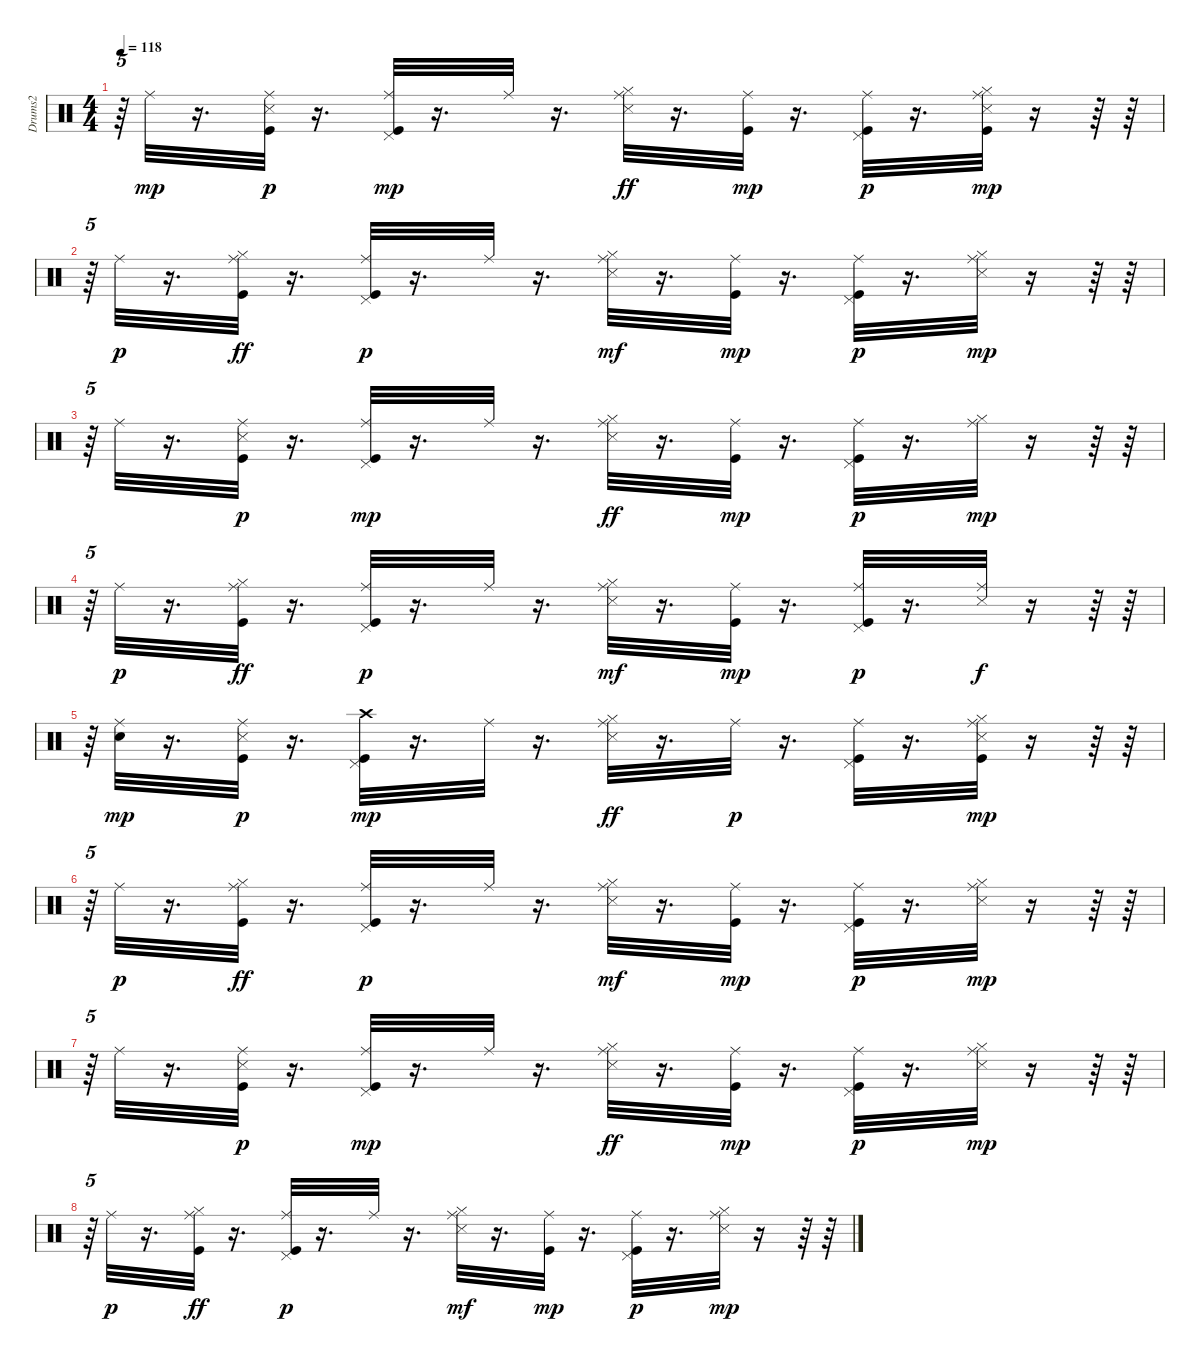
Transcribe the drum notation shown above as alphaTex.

\track ("Drums2" "Drums2") {instrument percussion}
\staff {score}
\articulation defaults
\ts (4 4)
\tempo 118
\clef neutral
\ks c
r.64{tu (5 4) dy mp} "Ride (middle)".32 r.16{d} ("Kick (hit)" "Snare (side stick) 3" "Ride (middle)").32{dy p} r.16{d} ("Kick (hit)" "Pedal Hi-Hat (hit)" "Ride (middle)").32{dy mp} r.16{d} "Ride (middle)".32 r.16{d} ("Hi-Hat (closed)" "Snare (side stick) 3" "Ride (middle)").32{dy ff} r.16{d} ("Ride (middle)" "Kick (hit)").32{dy mp} r.16{d} ("Kick (hit)" "Pedal Hi-Hat (hit)" "Ride (middle)").32{dy p} r.16{d} ("Hi-Hat (closed)" "Kick (hit)" "Snare (side stick) 3" "Ride (middle)").32{dy mp} r.16 r.64 r.64 |
r.64{tu (5 4)} "Ride (middle)".32{dy p} r.16{d} ("Hi-Hat (closed)" "Kick (hit)" "Ride (middle)").32{dy ff} r.16{d} ("Kick (hit)" "Pedal Hi-Hat (hit)" "Ride (middle)").32{dy p} r.16{d} "Ride (middle)".32 r.16{d} ("Hi-Hat (closed)" "Snare (side stick) 3" "Ride (middle)").32{dy mf} r.16{d} ("Ride (middle)" "Kick (hit)").32{dy mp} r.16{d} ("Kick (hit)" "Pedal Hi-Hat (hit)" "Ride (middle)").32{dy p} r.16{d} ("Hi-Hat (closed)" "Snare (side stick) 3" "Ride (middle)").32{dy mp} r.16 r.64 r.64 |
r.64{tu (5 4)} "Ride (middle)".32 r.16{d} ("Kick (hit)" "Snare (side stick) 3" "Ride (middle)").32{dy p} r.16{d} ("Kick (hit)" "Pedal Hi-Hat (hit)" "Ride (middle)").32{dy mp} r.16{d} "Ride (middle)".32 r.16{d} ("Hi-Hat (closed)" "Snare (side stick) 3" "Ride (middle)").32{dy ff} r.16{d} ("Ride (middle)" "Kick (hit)").32{dy mp} r.16{d} ("Kick (hit)" "Pedal Hi-Hat (hit)" "Ride (middle)").32{dy p} r.16{d} ("Ride (middle)" "Hi-Hat (closed)").32{dy mp} r.16 r.64 r.64 |
r.64{tu (5 4)} "Ride (middle)".32{dy p} r.16{d} ("Hi-Hat (closed)" "Kick (hit)" "Ride (middle)").32{dy ff} r.16{d} ("Kick (hit)" "Pedal Hi-Hat (hit)" "Ride (middle)").32{dy p} r.16{d} "Ride (middle)".32 r.16{d} ("Hi-Hat (closed)" "Snare (side stick) 3" "Ride (middle)").32{dy mf} r.16{d} ("Ride (middle)" "Kick (hit)").32{dy mp} r.16{d} ("Kick (hit)" "Pedal Hi-Hat (hit)" "Ride (middle)").32{dy p} r.16{d} ("Ride (middle)" "Snare (side stick) 3").32{dy f} r.16 r.64 r.64 |
r.64{tu (5 4)} ("Ride (middle)" "Electric Snare (hit)").32{dy mp} r.16{d} ("Kick (hit)" "Snare (side stick) 3" "Ride (middle)").32{dy p} r.16{d} ("Kick (hit)" "Pedal Hi-Hat (hit)" "Crash high (hit)").32{dy mp} r.16{d} "Ride (middle)".32 r.16{d} ("Hi-Hat (closed)" "Snare (side stick) 3" "Ride (middle)").32{dy ff} r.16{d} "Ride (middle)".32{dy p} r.16{d} ("Kick (hit)" "Pedal Hi-Hat (hit)" "Ride (middle)").32 r.16{d} ("Hi-Hat (closed)" "Kick (hit)" "Snare (side stick) 3" "Ride (middle)").32{dy mp} r.16 r.64 r.64 |
r.64{tu (5 4)} "Ride (middle)".32{dy p} r.16{d} ("Hi-Hat (closed)" "Kick (hit)" "Ride (middle)").32{dy ff} r.16{d} ("Kick (hit)" "Pedal Hi-Hat (hit)" "Ride (middle)").32{dy p} r.16{d} "Ride (middle)".32 r.16{d} ("Hi-Hat (closed)" "Snare (side stick) 3" "Ride (middle)").32{dy mf} r.16{d} ("Ride (middle)" "Kick (hit)").32{dy mp} r.16{d} ("Kick (hit)" "Pedal Hi-Hat (hit)" "Ride (middle)").32{dy p} r.16{d} ("Hi-Hat (closed)" "Snare (side stick) 3" "Ride (middle)").32{dy mp} r.16 r.64 r.64 |
r.64{tu (5 4)} "Ride (middle)".32 r.16{d} ("Kick (hit)" "Snare (side stick) 3" "Ride (middle)").32{dy p} r.16{d} ("Kick (hit)" "Pedal Hi-Hat (hit)" "Ride (middle)").32{dy mp} r.16{d} "Ride (middle)".32 r.16{d} ("Hi-Hat (closed)" "Snare (side stick) 3" "Ride (middle)").32{dy ff} r.16{d} ("Ride (middle)" "Kick (hit)").32{dy mp} r.16{d} ("Kick (hit)" "Pedal Hi-Hat (hit)" "Ride (middle)").32{dy p} r.16{d} ("Hi-Hat (closed)" "Snare (side stick) 3" "Ride (middle)").32{dy mp} r.16 r.64 r.64 |
r.64{tu (5 4)} "Ride (middle)".32{dy p} r.16{d} ("Hi-Hat (closed)" "Kick (hit)" "Ride (middle)").32{dy ff} r.16{d} ("Kick (hit)" "Pedal Hi-Hat (hit)" "Ride (middle)").32{dy p} r.16{d} "Ride (middle)".32 r.16{d} ("Hi-Hat (closed)" "Snare (side stick) 3" "Ride (middle)").32{dy mf} r.16{d} ("Ride (middle)" "Kick (hit)").32{dy mp} r.16{d} ("Kick (hit)" "Pedal Hi-Hat (hit)" "Ride (middle)").32{dy p} r.16{d} ("Hi-Hat (closed)" "Snare (side stick) 3" "Ride (middle)").32{dy mp} r.16 r.64 r.64
